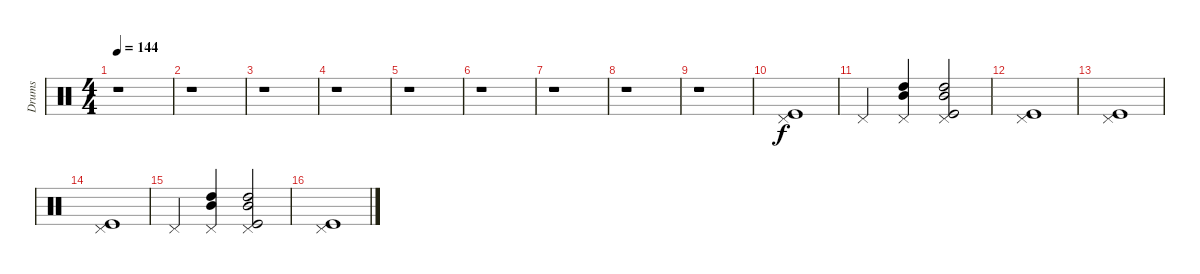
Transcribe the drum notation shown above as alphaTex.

\track ("Drums" "Drums") {instrument percussion}
\staff {score}
\articulation defaults
\ts (4 4)
\tempo 144
\clef neutral
\ks c
r.1{dy f} |
r.1 |
r.1 |
r.1 |
r.1 |
r.1 |
r.1 |
r.1 |
r.1 |
("Pedal Hi-Hat (hit)" "Kick (hit)").1 |
"Pedal Hi-Hat (hit)".4 ("Pedal Hi-Hat (hit)" "High Tom (hit)" "Mid Tom (hit)").4 ("Pedal Hi-Hat (hit)" "High Tom (hit)" "Mid Tom (hit)" "Kick (hit)").2 |
("Pedal Hi-Hat (hit)" "Kick (hit)").1 |
("Pedal Hi-Hat (hit)" "Kick (hit)").1 |
("Pedal Hi-Hat (hit)" "Kick (hit)").1 |
"Pedal Hi-Hat (hit)".4 ("Pedal Hi-Hat (hit)" "High Tom (hit)" "Mid Tom (hit)").4 ("Pedal Hi-Hat (hit)" "High Tom (hit)" "Mid Tom (hit)" "Kick (hit)").2 |
("Pedal Hi-Hat (hit)" "Kick (hit)").1
